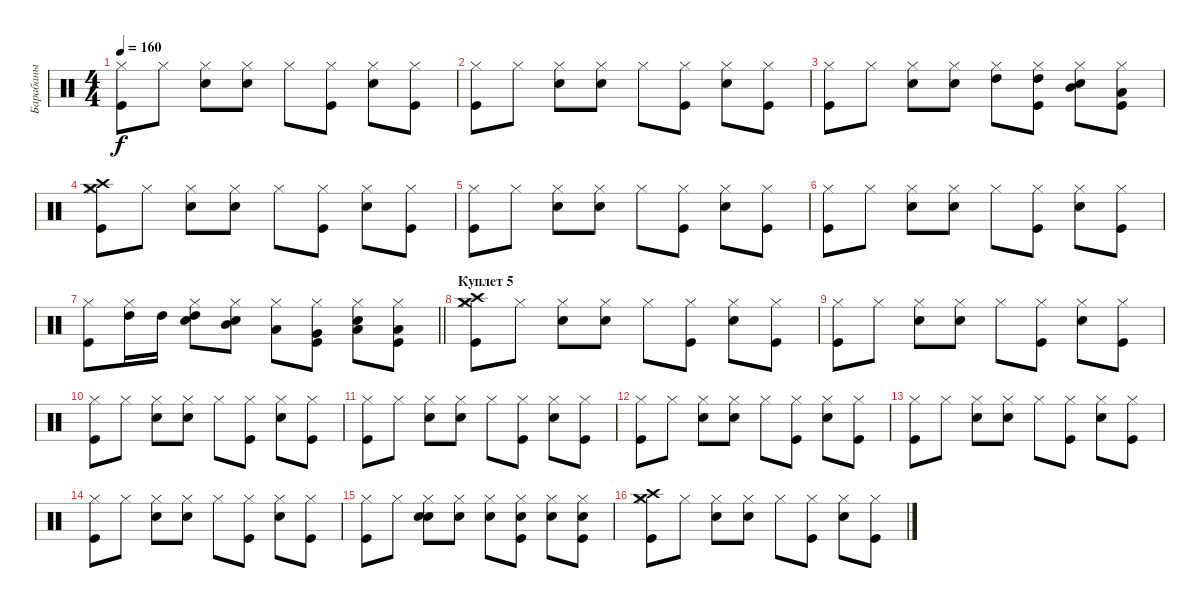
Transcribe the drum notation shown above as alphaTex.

\track ("Барабаны" "Барабаны") {instrument percussion}
\staff {score}
\articulation defaults
\ts (4 4)
\tempo 160
\clef neutral
\ks c
("Kick (hit)" "Hi-Hat (closed)").8{dy f} "Hi-Hat (closed)".8 ("Snare (hit) 2" "Hi-Hat (closed)").8 ("Snare (hit) 2" "Hi-Hat (closed)").8 "Hi-Hat (closed)".8 ("Kick (hit)" "Hi-Hat (closed)").8 ("Snare (hit) 2" "Hi-Hat (closed)").8 ("Kick (hit)" "Hi-Hat (closed)").8 |
("Kick (hit)" "Hi-Hat (closed)").8 "Hi-Hat (closed)".8 ("Snare (hit) 2" "Hi-Hat (closed)").8 ("Snare (hit) 2" "Hi-Hat (closed)").8 "Hi-Hat (closed)".8 ("Kick (hit)" "Hi-Hat (closed)").8 ("Snare (hit) 2" "Hi-Hat (closed)").8 ("Kick (hit)" "Hi-Hat (closed)").8 |
("Kick (hit)" "Hi-Hat (closed)").8 "Hi-Hat (closed)".8 ("Snare (hit) 2" "Hi-Hat (closed)").8 ("Snare (hit) 2" "Hi-Hat (closed)").8 ("Hi-Hat (closed)" "High Tom (hit)").8 ("Kick (hit)" "Hi-Hat (closed)" "High Tom (hit)").8 ("Snare (hit) 2" "Hi-Hat (closed)" "Mid Tom (hit)").8 ("Kick (hit)" "Hi-Hat (closed)" "Low Tom (hit)").8 |
("Kick (hit)" "Hi-Hat (closed)" "Crash high (hit)" "Crash medium (hit)").8 "Hi-Hat (closed)".8 ("Snare (hit) 2" "Hi-Hat (closed)").8 ("Snare (hit) 2" "Hi-Hat (closed)").8 "Hi-Hat (closed)".8 ("Kick (hit)" "Hi-Hat (closed)").8 ("Snare (hit) 2" "Hi-Hat (closed)").8 ("Kick (hit)" "Hi-Hat (closed)").8 |
("Kick (hit)" "Hi-Hat (closed)").8 "Hi-Hat (closed)".8 ("Snare (hit) 2" "Hi-Hat (closed)").8 ("Snare (hit) 2" "Hi-Hat (closed)").8 "Hi-Hat (closed)".8 ("Kick (hit)" "Hi-Hat (closed)").8 ("Snare (hit) 2" "Hi-Hat (closed)").8 ("Kick (hit)" "Hi-Hat (closed)").8 |
("Kick (hit)" "Hi-Hat (closed)").8 "Hi-Hat (closed)".8 ("Snare (hit) 2" "Hi-Hat (closed)").8 ("Snare (hit) 2" "Hi-Hat (closed)").8 "Hi-Hat (closed)".8 ("Kick (hit)" "Hi-Hat (closed)").8 ("Snare (hit) 2" "Hi-Hat (closed)").8 ("Kick (hit)" "Hi-Hat (closed)").8 |
\barLineRight lightlight
("Kick (hit)" "Hi-Hat (closed)").8 ("Hi-Hat (closed)" "High Tom (hit)").16 "High Tom (hit)".16 ("Snare (hit) 2" "Hi-Hat (closed)" "High Tom (hit)").8 ("Snare (hit) 2" "Hi-Hat (closed)" "Mid Tom (hit)").8 ("Hi-Hat (closed)" "Low Tom (hit)").8 ("Kick (hit)" "Hi-Hat (closed)" "Very Low Tom (hit)").8 ("Snare (hit) 2" "Hi-Hat (closed)" "Low Floor Tom (hit)").8 ("Kick (hit)" "Hi-Hat (closed)" "Low Floor Tom (hit)").8 |
\section ("" "Куплет 5")
("Kick (hit)" "Hi-Hat (closed)" "Crash high (hit)" "Crash medium (hit)").8 "Hi-Hat (closed)".8 ("Snare (hit) 2" "Hi-Hat (closed)").8 ("Snare (hit) 2" "Hi-Hat (closed)").8 "Hi-Hat (closed)".8 ("Kick (hit)" "Hi-Hat (closed)").8 ("Snare (hit) 2" "Hi-Hat (closed)").8 ("Kick (hit)" "Hi-Hat (closed)").8 |
("Kick (hit)" "Hi-Hat (closed)").8 "Hi-Hat (closed)".8 ("Snare (hit) 2" "Hi-Hat (closed)").8 ("Snare (hit) 2" "Hi-Hat (closed)").8 "Hi-Hat (closed)".8 ("Kick (hit)" "Hi-Hat (closed)").8 ("Snare (hit) 2" "Hi-Hat (closed)").8 ("Kick (hit)" "Hi-Hat (closed)").8 |
("Kick (hit)" "Hi-Hat (closed)").8 "Hi-Hat (closed)".8 ("Snare (hit) 2" "Hi-Hat (closed)").8 ("Snare (hit) 2" "Hi-Hat (closed)").8 "Hi-Hat (closed)".8 ("Kick (hit)" "Hi-Hat (closed)").8 ("Snare (hit) 2" "Hi-Hat (closed)").8 ("Kick (hit)" "Hi-Hat (closed)").8 |
("Kick (hit)" "Hi-Hat (closed)").8 "Hi-Hat (closed)".8 ("Snare (hit) 2" "Hi-Hat (closed)").8 ("Snare (hit) 2" "Hi-Hat (closed)").8 "Hi-Hat (closed)".8 ("Kick (hit)" "Hi-Hat (closed)").8 ("Snare (hit) 2" "Hi-Hat (closed)").8 ("Kick (hit)" "Hi-Hat (closed)").8 |
("Kick (hit)" "Hi-Hat (closed)").8 "Hi-Hat (closed)".8 ("Snare (hit) 2" "Hi-Hat (closed)").8 ("Snare (hit) 2" "Hi-Hat (closed)").8 "Hi-Hat (closed)".8 ("Kick (hit)" "Hi-Hat (closed)").8 ("Snare (hit) 2" "Hi-Hat (closed)").8 ("Kick (hit)" "Hi-Hat (closed)").8 |
("Kick (hit)" "Hi-Hat (closed)").8 "Hi-Hat (closed)".8 ("Snare (hit) 2" "Hi-Hat (closed)").8 ("Snare (hit) 2" "Hi-Hat (closed)").8 "Hi-Hat (closed)".8 ("Kick (hit)" "Hi-Hat (closed)").8 ("Snare (hit) 2" "Hi-Hat (closed)").8 ("Kick (hit)" "Hi-Hat (closed)").8 |
("Kick (hit)" "Hi-Hat (closed)").8 "Hi-Hat (closed)".8 ("Snare (hit) 2" "Hi-Hat (closed)").8 ("Snare (hit) 2" "Hi-Hat (closed)").8 "Hi-Hat (closed)".8 ("Kick (hit)" "Hi-Hat (closed)").8 ("Snare (hit) 2" "Hi-Hat (closed)").8 ("Kick (hit)" "Hi-Hat (closed)").8 |
("Kick (hit)" "Hi-Hat (closed)").8 "Hi-Hat (closed)".8 ("Snare (hit) 2" "Hi-Hat (closed)" "Hand Clap (hit)").8 ("Snare (hit) 2" "Hi-Hat (closed)").8 ("Hi-Hat (closed)" "Hand Clap (hit)").8 ("Kick (hit)" "Hi-Hat (closed)" "Hand Clap (hit)").8 ("Snare (hit) 2" "Hi-Hat (closed)").8 ("Kick (hit)" "Hi-Hat (closed)" "Hand Clap (hit)").8 |
("Kick (hit)" "Hi-Hat (closed)" "Crash high (hit)" "Crash medium (hit)").8 "Hi-Hat (closed)".8 ("Snare (hit) 2" "Hi-Hat (closed)").8 ("Snare (hit) 2" "Hi-Hat (closed)").8 "Hi-Hat (closed)".8 ("Kick (hit)" "Hi-Hat (closed)").8 ("Snare (hit) 2" "Hi-Hat (closed)").8 ("Kick (hit)" "Hi-Hat (closed)").8
